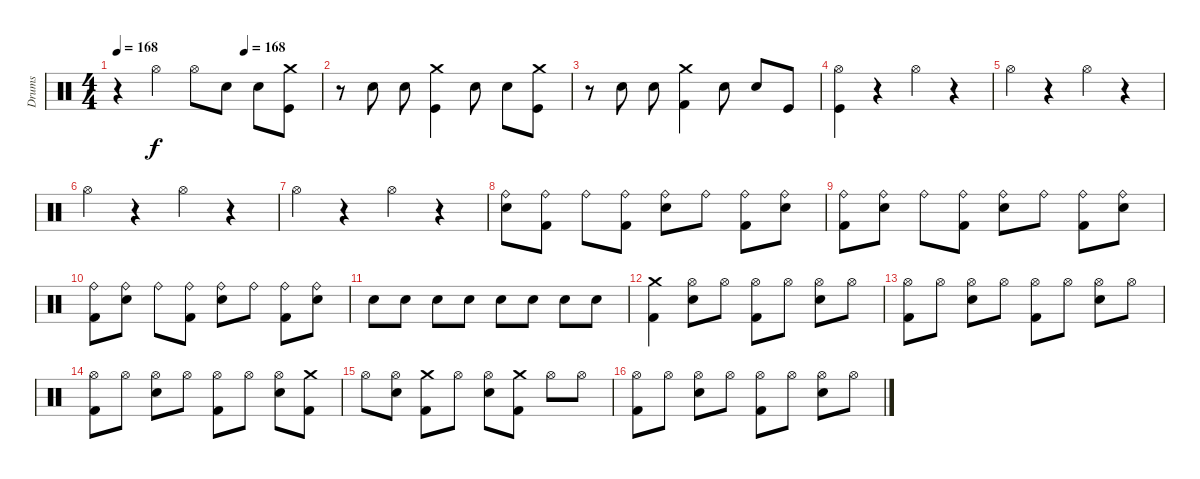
\track ("Drums" "Drums") {instrument percussion}
\staff {score}
\articulation defaults
\ts (4 4)
\tempo 168
\tempo (168 0.625)
\clef neutral
\ks c
r.4{dy f} "Hi-Hat (open)".4 "Hi-Hat (open)".8 "Snare (hit) 2".8 "Snare (hit) 2".8 ("Crash medium (hit)" "Kick (hit)").8 |
r.8 "Snare (hit) 2".8 "Snare (hit) 2".8 ("Crash medium (hit)" "Kick (hit)").4 "Snare (hit) 2".8 "Snare (hit) 2".8 ("Crash medium (hit)" "Kick (hit)").8 |
r.8 "Snare (hit) 2".8 "Snare (hit) 2".8 ("Kick (hit) 2" "Crash medium (hit)").4 "Snare (hit) 2".8 "Snare (hit) 2".8 "Kick (hit)".8 |
("Kick (hit)" "Hi-Hat (open)").4 r.4 "Hi-Hat (open)".4 r.4 |
"Hi-Hat (open)".4 r.4 "Hi-Hat (open)".4 r.4 |
"Hi-Hat (open)".4 r.4 "Hi-Hat (open)".4 r.4 |
"Hi-Hat (open)".4 r.4 "Hi-Hat (open)".4 r.4 |
("Ride (bell)" "Snare (hit) 2").8 ("Kick (hit) 2" "Ride (bell)").8 "Ride (bell)".8 ("Kick (hit) 2" "Ride (bell)").8 ("Snare (hit) 2" "Ride (bell)").8 "Ride (bell)".8 ("Kick (hit) 2" "Ride (bell)").8 ("Snare (hit) 2" "Ride (bell)").8 |
("Kick (hit) 2" "Ride (bell)").8 ("Snare (hit) 2" "Ride (bell)").8 "Ride (bell)".8 ("Kick (hit) 2" "Ride (bell)").8 ("Snare (hit) 2" "Ride (bell)").8 "Ride (bell)".8 ("Kick (hit) 2" "Ride (bell)").8 ("Snare (hit) 2" "Ride (bell)").8 |
("Kick (hit) 2" "Ride (bell)").8 ("Snare (hit) 2" "Ride (bell)").8 "Ride (bell)".8 ("Kick (hit) 2" "Ride (bell)").8 ("Snare (hit) 2" "Ride (bell)").8 "Ride (bell)".8 ("Kick (hit) 2" "Ride (bell)").8 ("Snare (hit) 2" "Ride (bell)").8 |
"Snare (hit) 2".8 "Snare (hit) 2".8 "Snare (hit) 2".8 "Snare (hit) 2".8 "Snare (hit) 2".8 "Snare (hit) 2".8 "Snare (hit) 2".8 "Snare (hit) 2".8 |
("Crash medium (hit)" "Kick (hit) 2").4 ("Snare (hit) 2" "Hi-Hat (open)").8 "Hi-Hat (open)".8 ("Kick (hit) 2" "Hi-Hat (open)").8 "Hi-Hat (open)".8 ("Snare (hit) 2" "Hi-Hat (open)").8 "Hi-Hat (open)".8 |
("Kick (hit) 2" "Hi-Hat (open)").8 "Hi-Hat (open)".8 ("Snare (hit) 2" "Hi-Hat (open)").8 "Hi-Hat (open)".8 ("Kick (hit) 2" "Hi-Hat (open)").8 "Hi-Hat (open)".8 ("Snare (hit) 2" "Hi-Hat (open)").8 "Hi-Hat (open)".8 |
("Kick (hit) 2" "Hi-Hat (open)").8 "Hi-Hat (open)".8 ("Snare (hit) 2" "Hi-Hat (open)").8 "Hi-Hat (open)".8 ("Kick (hit) 2" "Hi-Hat (open)").8 "Hi-Hat (open)".8 ("Snare (hit) 2" "Hi-Hat (open)").8 ("Kick (hit) 2" "Crash medium (hit)").8 |
"Hi-Hat (open)".8 ("Snare (hit) 2" "Hi-Hat (open)").8 ("Kick (hit) 2" "Crash medium (hit)").8 "Hi-Hat (open)".8 ("Snare (hit) 2" "Hi-Hat (open)").8 ("Kick (hit) 2" "Crash medium (hit)").8 "Hi-Hat (open)".8 "Hi-Hat (open)".8 |
("Kick (hit) 2" "Hi-Hat (open)").8 "Hi-Hat (open)".8 ("Hi-Hat (open)" "Snare (hit) 2").8 "Hi-Hat (open)".8 ("Hi-Hat (open)" "Kick (hit) 2").8 "Hi-Hat (open)".8 ("Hi-Hat (open)" "Snare (hit) 2").8 "Hi-Hat (open)".8
